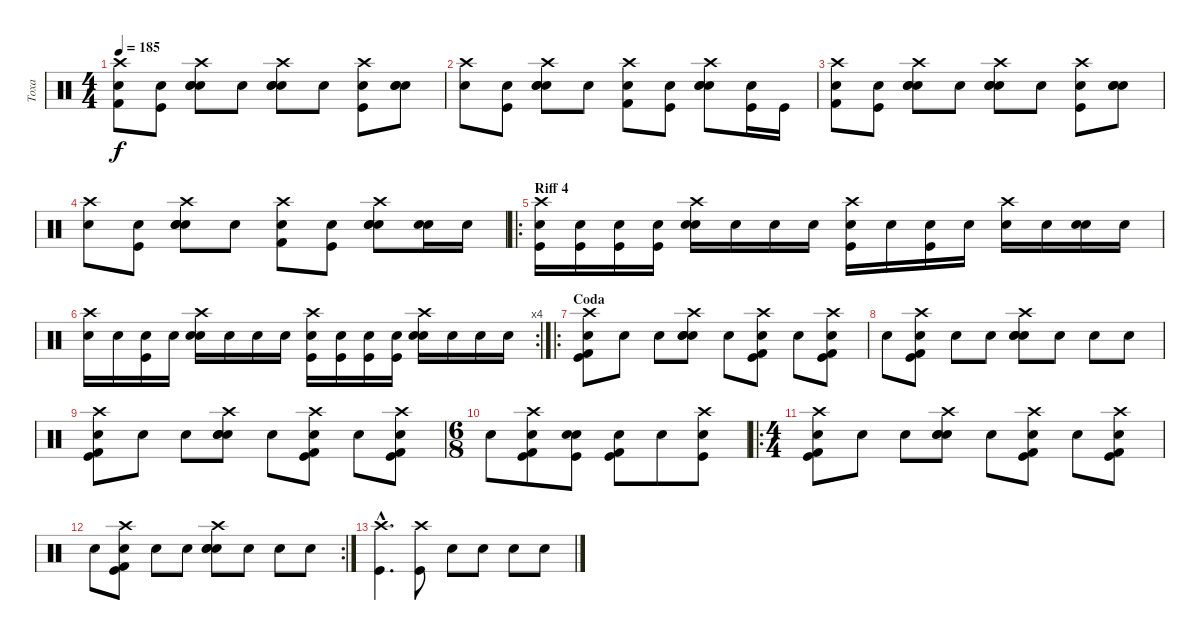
\track ("Toxa" "Toxa") {instrument percussion}
\staff {score}
\articulation defaults
\ts (4 4)
\tempo 185
\clef neutral
\ks c
("Crash high (hit)" "Kick (hit) 2" "Snare (hit)"{x}).8{dy f} ("Kick (hit)" "Snare (hit)"{x}).8 ("Crash high (hit)" "Electric Snare (hit)" "Snare (hit) 2" "Snare (hit)"{x}).8 "Snare (hit)"{x}.8 ("Crash high (hit)" "Electric Snare (hit)" "Snare (hit) 2" "Snare (hit)"{x}).8 "Snare (hit)"{x}.8 ("Crash high (hit)" "Kick (hit)" "Snare (hit)"{x}).8 ("Electric Snare (hit)" "Snare (hit) 2" "Snare (hit)"{x}).8 |
("Crash high (hit)" "Snare (hit)"{x}).8 ("Kick (hit)" "Snare (hit)"{x}).8 ("Crash high (hit)" "Electric Snare (hit)" "Snare (hit) 2" "Snare (hit)"{x}).8 "Snare (hit)"{x}.8 ("Crash high (hit)" "Kick (hit) 2" "Snare (hit)"{x}).8 ("Kick (hit)" "Snare (hit)"{x}).8 ("Crash high (hit)" "Electric Snare (hit)" "Snare (hit) 2" "Snare (hit)"{x}).8 ("Kick (hit)" "Snare (hit)"{x}).16 "Kick (hit)".16 |
("Crash high (hit)" "Kick (hit) 2" "Snare (hit)"{x}).8 ("Kick (hit)" "Snare (hit)"{x}).8 ("Crash high (hit)" "Electric Snare (hit)" "Snare (hit) 2" "Snare (hit)"{x}).8 "Snare (hit)"{x}.8 ("Crash high (hit)" "Electric Snare (hit)" "Snare (hit) 2" "Snare (hit)"{x}).8 "Snare (hit)"{x}.8 ("Crash high (hit)" "Kick (hit)" "Snare (hit)"{x}).8 ("Electric Snare (hit)" "Snare (hit) 2" "Snare (hit)"{x}).8 |
("Crash high (hit)" "Snare (hit)"{x}).8 ("Kick (hit)" "Snare (hit)"{x}).8 ("Crash high (hit)" "Electric Snare (hit)" "Snare (hit) 2" "Snare (hit)"{x}).8 "Snare (hit)"{x}.8 ("Crash high (hit)" "Kick (hit) 2" "Snare (hit)"{x}).8 ("Kick (hit)" "Snare (hit)"{x}).8 ("Crash high (hit)" "Electric Snare (hit)" "Snare (hit) 2" "Snare (hit)"{x}).8 ("Electric Snare (hit)" "Snare (hit)"{x}).16 "Electric Snare (hit)".16 |
\ro
\section ("" "Riff 4")
("Crash high (hit)" "Kick (hit)" "Snare (hit)"{x}).16 ("Kick (hit)" "Snare (hit)"{x}).16 ("Kick (hit)" "Snare (hit)"{x}).16 ("Kick (hit)" "Snare (hit)"{x}).16 ("Crash high (hit)" "Electric Snare (hit)" "Snare (hit)"{x}).16 "Snare (hit)"{x}.16 "Snare (hit)"{x}.16 "Snare (hit)"{x}.16 ("Crash high (hit)" "Kick (hit)" "Snare (hit)"{x}).16 "Snare (hit)"{x}.16 ("Kick (hit)" "Snare (hit)"{x}).16 "Snare (hit)"{x}.16 ("Crash high (hit)" "Snare (hit)"{x}).16 "Snare (hit)"{x}.16 ("Electric Snare (hit)" "Snare (hit)"{x}).16 "Snare (hit)"{x}.16 |
\rc 4
("Crash high (hit)" "Snare (hit)"{x}).16 "Snare (hit)"{x}.16 ("Kick (hit)" "Snare (hit)"{x}).16 "Snare (hit)"{x}.16 ("Crash high (hit)" "Electric Snare (hit)" "Snare (hit)"{x}).16 "Snare (hit)"{x}.16 "Snare (hit)"{x}.16 "Snare (hit)"{x}.16 ("Crash high (hit)" "Kick (hit)" "Snare (hit)"{x}).16 ("Kick (hit)" "Snare (hit)"{x}).16 ("Kick (hit)" "Snare (hit)"{x}).16 ("Kick (hit)" "Snare (hit)"{x}).16 ("Crash high (hit)" "Electric Snare (hit)" "Snare (hit)"{x}).16 "Snare (hit)"{x}.16 "Snare (hit)"{x}.16 "Snare (hit)"{x}.16 |
\ro
\section ("" "Coda")
("Crash high (hit)" "Kick (hit) 2" "Kick (hit)" "Snare (hit)"{x}).8 "Snare (hit)"{x}.8 "Snare (hit)"{x}.8 ("Crash high (hit)" "Snare (hit) 2" "Electric Snare (hit)" "Snare (hit)"{x}).8 "Snare (hit)"{x}.8 ("Crash high (hit)" "Kick (hit) 2" "Kick (hit)" "Snare (hit)"{x}).8 "Snare (hit)"{x}.8 ("Crash high (hit)" "Kick (hit) 2" "Kick (hit)" "Snare (hit)"{x}).8 |
"Snare (hit)"{x}.8 ("Crash high (hit)" "Kick (hit) 2" "Kick (hit)" "Snare (hit)"{x}).8 "Snare (hit)"{x}.8 "Snare (hit)"{x}.8 ("Crash high (hit)" "Snare (hit) 2" "Electric Snare (hit)" "Snare (hit)"{x}).8 "Snare (hit)"{x}.8 "Snare (hit)"{x}.8 "Snare (hit)"{x}.8 |
("Crash high (hit)" "Kick (hit) 2" "Kick (hit)" "Snare (hit)"{x}).8 "Snare (hit)"{x}.8 "Snare (hit)"{x}.8 ("Crash high (hit)" "Snare (hit) 2" "Electric Snare (hit)" "Snare (hit)"{x}).8 "Snare (hit)"{x}.8 ("Crash high (hit)" "Kick (hit) 2" "Kick (hit)" "Snare (hit)"{x}).8 "Snare (hit)"{x}.8 ("Crash high (hit)" "Kick (hit) 2" "Kick (hit)" "Snare (hit)"{x}).8 |
\ts (6 8)
"Snare (hit)"{x}.8 ("Crash high (hit)" "Kick (hit) 2" "Kick (hit)" "Snare (hit)"{x}).8 ("Electric Snare (hit)" "Kick (hit)" "Snare (hit)"{x}).8 ("Kick (hit)" "Kick (hit) 2" "Snare (hit)"{x}).8 "Snare (hit)"{x}.8 ("Crash high (hit)" "Kick (hit)" "Snare (hit)"{x}).8 |
\ro
\ts (4 4)
("Crash high (hit)" "Kick (hit) 2" "Kick (hit)" "Snare (hit)"{x}).8 "Snare (hit)"{x}.8 "Snare (hit)"{x}.8 ("Crash high (hit)" "Snare (hit) 2" "Electric Snare (hit)" "Snare (hit)"{x}).8 "Snare (hit)"{x}.8 ("Crash high (hit)" "Kick (hit) 2" "Kick (hit)" "Snare (hit)"{x}).8 "Snare (hit)"{x}.8 ("Crash high (hit)" "Kick (hit) 2" "Kick (hit)" "Snare (hit)"{x}).8 |
\rc 2 "Snare (hit)"{x}.8
("Crash high (hit)" "Kick (hit) 2" "Kick (hit)" "Snare (hit)"{x}).8 "Snare (hit)"{x}.8 "Snare (hit)"{x}.8 ("Crash high (hit)" "Snare (hit) 2" "Electric Snare (hit)" "Snare (hit)"{x}).8 "Snare (hit)"{x}.8 "Snare (hit)"{x}.8 "Snare (hit)"{x}.8 |
("Crash high (hit)"{hac} "Kick (hit)"{hac}).4{d} ("Crash high (hit)" "Kick (hit)").8 "Snare (hit)"{x}.8 "Snare (hit)"{x}.8 "Snare (hit)"{x}.8 "Snare (hit)"{x}.8
